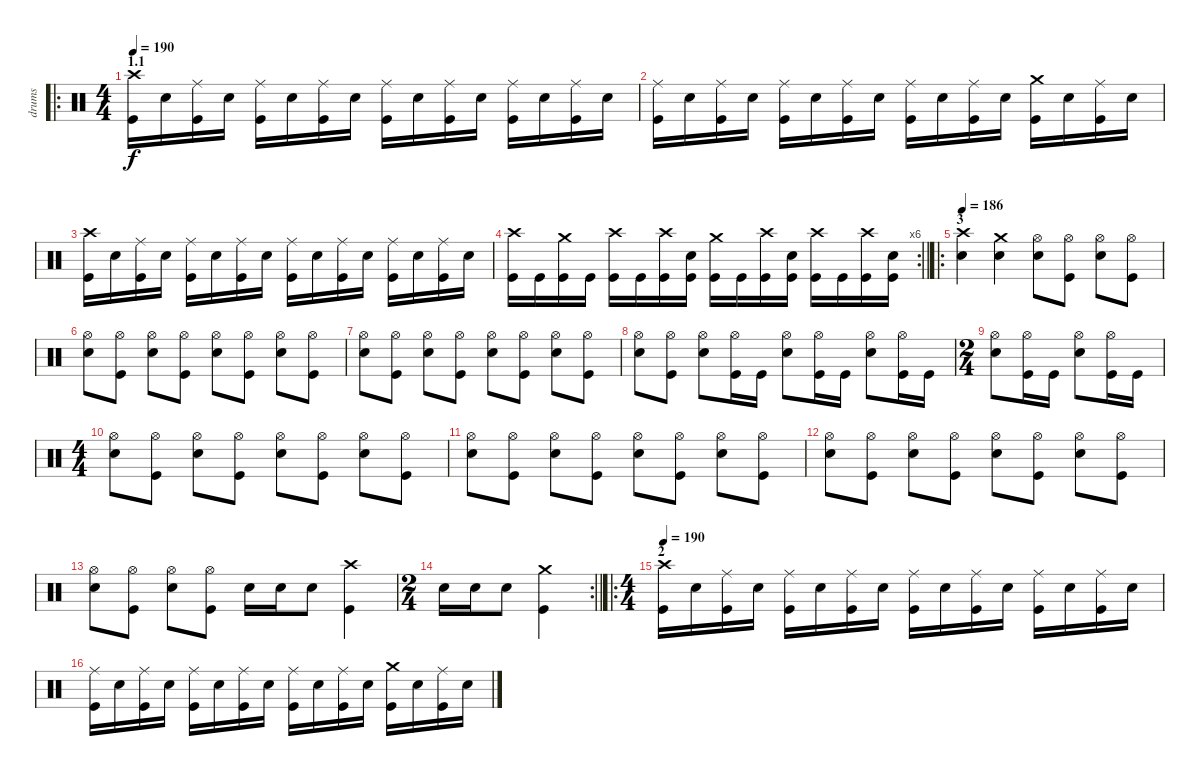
\track ("drums" "drums") {instrument percussion}
\staff {score}
\articulation defaults
\ro
\ts (4 4)
\section ("" "1.1")
\tempo 190
\clef neutral
\ks c
("Kick (hit)" "Crash high (hit)").16{dy f} "Electric Snare (hit)".16 ("Kick (hit)" "Ride (middle)").16 "Electric Snare (hit)".16 ("Kick (hit)" "Ride (middle)").16 "Electric Snare (hit)".16 ("Kick (hit)" "Ride (middle)").16 "Electric Snare (hit)".16 ("Kick (hit)" "Ride (middle)").16 "Electric Snare (hit)".16 ("Kick (hit)" "Ride (middle)").16 "Electric Snare (hit)".16 ("Kick (hit)" "Ride (middle)").16 "Electric Snare (hit)".16 ("Kick (hit)" "Ride (middle)").16 "Electric Snare (hit)".16 |
("Kick (hit)" "Ride (middle)").16 "Electric Snare (hit)".16 ("Kick (hit)" "Ride (middle)").16 "Electric Snare (hit)".16 ("Kick (hit)" "Ride (middle)").16 "Electric Snare (hit)".16 ("Kick (hit)" "Ride (middle)").16 "Electric Snare (hit)".16 ("Kick (hit)" "Ride (middle)").16 "Electric Snare (hit)".16 ("Kick (hit)" "Ride (middle)").16 "Electric Snare (hit)".16 ("Kick (hit)" "Crash medium (hit)").16 "Electric Snare (hit)".16 ("Kick (hit)" "Ride (middle)").16 "Electric Snare (hit)".16 |
("Kick (hit)" "Crash high (hit)").16 "Electric Snare (hit)".16 ("Kick (hit)" "Ride (middle)").16 "Electric Snare (hit)".16 ("Kick (hit)" "Ride (middle)").16 "Electric Snare (hit)".16 ("Kick (hit)" "Ride (middle)").16 "Electric Snare (hit)".16 ("Kick (hit)" "Ride (middle)").16 "Electric Snare (hit)".16 ("Kick (hit)" "Ride (middle)").16 "Electric Snare (hit)".16 ("Kick (hit)" "Ride (middle)").16 "Electric Snare (hit)".16 ("Kick (hit)" "Ride (middle)").16 "Electric Snare (hit)".16 |
\rc 6
\barLineRight lightlight
("Kick (hit)" "Crash high (hit)").16 "Kick (hit)".16 ("Kick (hit)" "Crash medium (hit)").16 "Kick (hit)".16 ("Kick (hit)" "Crash high (hit)").16 "Kick (hit)".16 ("Kick (hit)" "Crash high (hit)").16 ("Kick (hit)" "Electric Snare (hit)").16 ("Kick (hit)" "Crash medium (hit)").16 "Kick (hit)".16 ("Kick (hit)" "Crash high (hit)").16 ("Kick (hit)" "Electric Snare (hit)").16 ("Kick (hit)" "Crash high (hit)").16 "Kick (hit)".16 ("Kick (hit)" "Crash high (hit)").16 ("Kick (hit)" "Electric Snare (hit)").16 |
\ro
\section ("" "3")
\tempo 186
("Electric Snare (hit)" "Crash high (hit)").4 ("Electric Snare (hit)" "Crash medium (hit)").4 ("Electric Snare (hit)" "Hi-Hat (open)").8 ("Kick (hit)" "Hi-Hat (open)").8 ("Electric Snare (hit)" "Hi-Hat (open)").8 ("Kick (hit)" "Hi-Hat (open)").8 |
("Electric Snare (hit)" "Hi-Hat (open)").8 ("Kick (hit)" "Hi-Hat (open)").8 ("Electric Snare (hit)" "Hi-Hat (open)").8 ("Kick (hit)" "Hi-Hat (open)").8 ("Electric Snare (hit)" "Hi-Hat (open)").8 ("Kick (hit)" "Hi-Hat (open)").8 ("Electric Snare (hit)" "Hi-Hat (open)").8 ("Kick (hit)" "Hi-Hat (open)").8 |
("Electric Snare (hit)" "Hi-Hat (open)").8 ("Kick (hit)" "Hi-Hat (open)").8 ("Electric Snare (hit)" "Hi-Hat (open)").8 ("Kick (hit)" "Hi-Hat (open)").8 ("Electric Snare (hit)" "Hi-Hat (open)").8 ("Kick (hit)" "Hi-Hat (open)").8 ("Electric Snare (hit)" "Hi-Hat (open)").8 ("Kick (hit)" "Hi-Hat (open)").8 |
("Electric Snare (hit)" "Hi-Hat (open)").8 ("Kick (hit)" "Hi-Hat (open)").8 ("Electric Snare (hit)" "Hi-Hat (open)").8 ("Kick (hit)" "Hi-Hat (open)").16 "Kick (hit)".16 ("Electric Snare (hit)" "Hi-Hat (open)").8 ("Kick (hit)" "Hi-Hat (open)").16 "Kick (hit)".16 ("Electric Snare (hit)" "Hi-Hat (open)").8 ("Kick (hit)" "Hi-Hat (open)").16 "Kick (hit)".16 |
\ts (2 4)
("Electric Snare (hit)" "Hi-Hat (open)").8 ("Kick (hit)" "Hi-Hat (open)").16 "Kick (hit)".16 ("Electric Snare (hit)" "Hi-Hat (open)").8 ("Kick (hit)" "Hi-Hat (open)").16 "Kick (hit)".16 |
\ts (4 4)
("Electric Snare (hit)" "Hi-Hat (open)").8 ("Kick (hit)" "Hi-Hat (open)").8 ("Electric Snare (hit)" "Hi-Hat (open)").8 ("Kick (hit)" "Hi-Hat (open)").8 ("Electric Snare (hit)" "Hi-Hat (open)").8 ("Kick (hit)" "Hi-Hat (open)").8 ("Electric Snare (hit)" "Hi-Hat (open)").8 ("Kick (hit)" "Hi-Hat (open)").8 |
("Electric Snare (hit)" "Hi-Hat (open)").8 ("Kick (hit)" "Hi-Hat (open)").8 ("Electric Snare (hit)" "Hi-Hat (open)").8 ("Kick (hit)" "Hi-Hat (open)").8 ("Electric Snare (hit)" "Hi-Hat (open)").8 ("Kick (hit)" "Hi-Hat (open)").8 ("Electric Snare (hit)" "Hi-Hat (open)").8 ("Kick (hit)" "Hi-Hat (open)").8 |
("Electric Snare (hit)" "Hi-Hat (open)").8 ("Kick (hit)" "Hi-Hat (open)").8 ("Electric Snare (hit)" "Hi-Hat (open)").8 ("Kick (hit)" "Hi-Hat (open)").8 ("Electric Snare (hit)" "Hi-Hat (open)").8 ("Kick (hit)" "Hi-Hat (open)").8 ("Electric Snare (hit)" "Hi-Hat (open)").8 ("Kick (hit)" "Hi-Hat (open)").8 |
("Electric Snare (hit)" "Hi-Hat (open)").8 ("Kick (hit)" "Hi-Hat (open)").8 ("Electric Snare (hit)" "Hi-Hat (open)").8 ("Kick (hit)" "Hi-Hat (open)").8 "Electric Snare (hit)".16 "Electric Snare (hit)".16 "Electric Snare (hit)".8 ("Kick (hit)" "Crash high (hit)").4 |
\rc 2
\ts (2 4)
\barLineRight lightlight "Electric Snare (hit)".16 "Electric Snare (hit)".16 "Electric Snare (hit)".8
("Kick (hit)" "Crash medium (hit)").4 |
\ro
\ts (4 4)
\section ("" "2")
\tempo 190
("Kick (hit)" "Crash high (hit)").16 "Electric Snare (hit)".16 ("Kick (hit)" "Ride (middle)").16 "Electric Snare (hit)".16 ("Kick (hit)" "Ride (middle)").16 "Electric Snare (hit)".16 ("Kick (hit)" "Ride (middle)").16 "Electric Snare (hit)".16 ("Kick (hit)" "Ride (middle)").16 "Electric Snare (hit)".16 ("Kick (hit)" "Ride (middle)").16 "Electric Snare (hit)".16 ("Kick (hit)" "Ride (middle)").16 "Electric Snare (hit)".16 ("Kick (hit)" "Ride (middle)").16 "Electric Snare (hit)".16 |
("Kick (hit)" "Ride (middle)").16 "Electric Snare (hit)".16 ("Kick (hit)" "Ride (middle)").16 "Electric Snare (hit)".16 ("Kick (hit)" "Ride (middle)").16 "Electric Snare (hit)".16 ("Kick (hit)" "Ride (middle)").16 "Electric Snare (hit)".16 ("Kick (hit)" "Ride (middle)").16 "Electric Snare (hit)".16 ("Kick (hit)" "Ride (middle)").16 "Electric Snare (hit)".16 ("Kick (hit)" "Crash medium (hit)").16 "Electric Snare (hit)".16 ("Kick (hit)" "Ride (middle)").16 "Electric Snare (hit)".16
